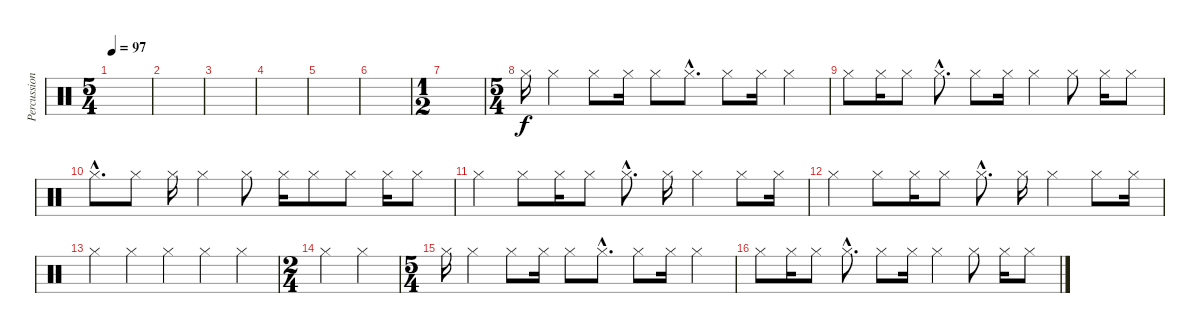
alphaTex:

\track ("Percussions" "Percussion") {instrument percussion}
\staff {score}
\articulation defaults
\ts (5 4)
\tempo 97
\clef neutral
\ks c
|
|
|
|
|
|
\ts (1 2)
|
\ts (5 4)
"Hi-Hat (closed)".16{volume 13} "Hi-Hat (closed)".4 "Hi-Hat (closed)".8 "Hi-Hat (closed)".16 "Hi-Hat (closed)".8 "Hi-Hat (closed)"{hac}.8{d} "Hi-Hat (closed)".8 "Hi-Hat (closed)".16 "Hi-Hat (closed)".4 |
"Hi-Hat (closed)".8 "Hi-Hat (closed)".16 "Hi-Hat (closed)".8 "Hi-Hat (closed)"{hac}.8{d} "Hi-Hat (closed)".8 "Hi-Hat (closed)".16 "Hi-Hat (closed)".4 "Hi-Hat (closed)".8 "Hi-Hat (closed)".16 "Hi-Hat (closed)".8 |
"Hi-Hat (closed)"{hac}.8{d} "Hi-Hat (closed)".8 "Hi-Hat (closed)".16 "Hi-Hat (closed)".4 "Hi-Hat (closed)".8 "Hi-Hat (closed)".16 "Hi-Hat (closed)".8 "Hi-Hat (closed)".8 "Hi-Hat (closed)".16 "Hi-Hat (closed)".8 |
"Hi-Hat (closed)".4 "Hi-Hat (closed)".8 "Hi-Hat (closed)".16 "Hi-Hat (closed)".8 "Hi-Hat (closed)"{hac}.8{d} "Hi-Hat (closed)".16 "Hi-Hat (closed)".4 "Hi-Hat (closed)".8 "Hi-Hat (closed)".16 |
"Hi-Hat (closed)".4 "Hi-Hat (closed)".8 "Hi-Hat (closed)".16 "Hi-Hat (closed)".8 "Hi-Hat (closed)"{hac}.8{d} "Hi-Hat (closed)".16 "Hi-Hat (closed)".4 "Hi-Hat (closed)".8 "Hi-Hat (closed)".16 |
"Hi-Hat (closed)".4 "Hi-Hat (closed)".4 "Hi-Hat (closed)".4 "Hi-Hat (closed)".4 "Hi-Hat (closed)".4 |
\ts (2 4)
"Hi-Hat (closed)".4 "Hi-Hat (closed)".4 |
\ts (5 4)
"Hi-Hat (closed)".16{volume 13} "Hi-Hat (closed)".4 "Hi-Hat (closed)".8 "Hi-Hat (closed)".16 "Hi-Hat (closed)".8 "Hi-Hat (closed)"{hac}.8{d} "Hi-Hat (closed)".8 "Hi-Hat (closed)".16 "Hi-Hat (closed)".4 |
"Hi-Hat (closed)".8 "Hi-Hat (closed)".16 "Hi-Hat (closed)".8 "Hi-Hat (closed)"{hac}.8{d} "Hi-Hat (closed)".8 "Hi-Hat (closed)".16 "Hi-Hat (closed)".4 "Hi-Hat (closed)".8 "Hi-Hat (closed)".16 "Hi-Hat (closed)".8
